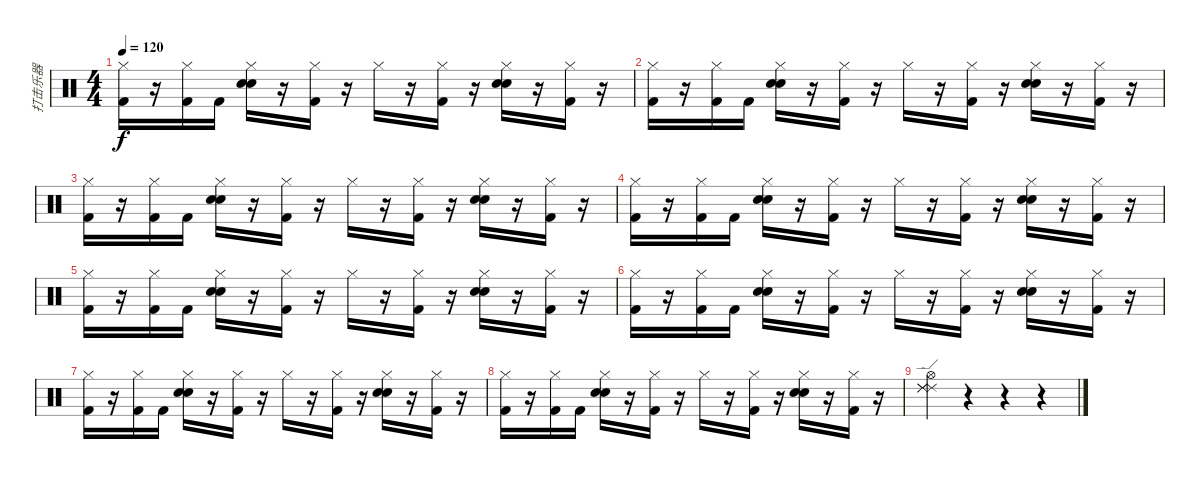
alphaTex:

\track ("打击乐器" "打击乐器") {instrument percussion}
\staff {score}
\articulation defaults
\ts (4 4)
\tempo 120
\clef neutral
\ks c
("Hi-Hat (closed)" "Kick (hit) 2").16{dy f} r.16 ("Hi-Hat (closed)" "Kick (hit) 2").16 "Kick (hit) 2".16 ("Hi-Hat (closed)" "Electric Snare (hit)" "Snare (hit) 2").16 r.16 ("Hi-Hat (closed)" "Kick (hit) 2").16 r.16 "Hi-Hat (closed)".16 r.16 ("Hi-Hat (closed)" "Kick (hit) 2").16 r.16 ("Hi-Hat (closed)" "Electric Snare (hit)" "Snare (hit) 2").16 r.16 ("Hi-Hat (closed)" "Kick (hit) 2").16 r.16 |
("Hi-Hat (closed)" "Kick (hit) 2").16 r.16 ("Hi-Hat (closed)" "Kick (hit) 2").16 "Kick (hit) 2".16 ("Hi-Hat (closed)" "Electric Snare (hit)" "Snare (hit) 2").16 r.16 ("Hi-Hat (closed)" "Kick (hit) 2").16 r.16 "Hi-Hat (closed)".16 r.16 ("Hi-Hat (closed)" "Kick (hit) 2").16 r.16 ("Hi-Hat (closed)" "Electric Snare (hit)" "Snare (hit) 2").16 r.16 ("Hi-Hat (closed)" "Kick (hit) 2").16 r.16 |
("Hi-Hat (closed)" "Kick (hit) 2").16 r.16 ("Hi-Hat (closed)" "Kick (hit) 2").16 "Kick (hit) 2".16 ("Hi-Hat (closed)" "Electric Snare (hit)" "Snare (hit) 2").16 r.16 ("Hi-Hat (closed)" "Kick (hit) 2").16 r.16 "Hi-Hat (closed)".16 r.16 ("Hi-Hat (closed)" "Kick (hit) 2").16 r.16 ("Hi-Hat (closed)" "Electric Snare (hit)" "Snare (hit) 2").16 r.16 ("Hi-Hat (closed)" "Kick (hit) 2").16 r.16 |
("Hi-Hat (closed)" "Kick (hit) 2").16 r.16 ("Hi-Hat (closed)" "Kick (hit) 2").16 "Kick (hit) 2".16 ("Hi-Hat (closed)" "Electric Snare (hit)" "Snare (hit) 2").16 r.16 ("Hi-Hat (closed)" "Kick (hit) 2").16 r.16 "Hi-Hat (closed)".16 r.16 ("Hi-Hat (closed)" "Kick (hit) 2").16 r.16 ("Hi-Hat (closed)" "Electric Snare (hit)" "Snare (hit) 2").16 r.16 ("Hi-Hat (closed)" "Kick (hit) 2").16 r.16 |
("Hi-Hat (closed)" "Kick (hit) 2").16 r.16 ("Hi-Hat (closed)" "Kick (hit) 2").16 "Kick (hit) 2".16 ("Hi-Hat (closed)" "Electric Snare (hit)" "Snare (hit) 2").16 r.16 ("Hi-Hat (closed)" "Kick (hit) 2").16 r.16 "Hi-Hat (closed)".16 r.16 ("Hi-Hat (closed)" "Kick (hit) 2").16 r.16 ("Hi-Hat (closed)" "Electric Snare (hit)" "Snare (hit) 2").16 r.16 ("Hi-Hat (closed)" "Kick (hit) 2").16 r.16 |
("Hi-Hat (closed)" "Kick (hit) 2").16 r.16 ("Hi-Hat (closed)" "Kick (hit) 2").16 "Kick (hit) 2".16 ("Hi-Hat (closed)" "Electric Snare (hit)" "Snare (hit) 2").16 r.16 ("Hi-Hat (closed)" "Kick (hit) 2").16 r.16 "Hi-Hat (closed)".16 r.16 ("Hi-Hat (closed)" "Kick (hit) 2").16 r.16 ("Hi-Hat (closed)" "Electric Snare (hit)" "Snare (hit) 2").16 r.16 ("Hi-Hat (closed)" "Kick (hit) 2").16 r.16 |
("Hi-Hat (closed)" "Kick (hit) 2").16 r.16 ("Hi-Hat (closed)" "Kick (hit) 2").16 "Kick (hit) 2".16 ("Hi-Hat (closed)" "Electric Snare (hit)" "Snare (hit) 2").16 r.16 ("Hi-Hat (closed)" "Kick (hit) 2").16 r.16 "Hi-Hat (closed)".16 r.16 ("Hi-Hat (closed)" "Kick (hit) 2").16 r.16 ("Hi-Hat (closed)" "Electric Snare (hit)" "Snare (hit) 2").16 r.16 ("Hi-Hat (closed)" "Kick (hit) 2").16 r.16 |
("Hi-Hat (closed)" "Kick (hit) 2").16 r.16 ("Hi-Hat (closed)" "Kick (hit) 2").16 "Kick (hit) 2".16 ("Hi-Hat (closed)" "Electric Snare (hit)" "Snare (hit) 2").16 r.16 ("Hi-Hat (closed)" "Kick (hit) 2").16 r.16 "Hi-Hat (closed)".16 r.16 ("Hi-Hat (closed)" "Kick (hit) 2").16 r.16 ("Hi-Hat (closed)" "Electric Snare (hit)" "Snare (hit) 2").16 r.16 ("Hi-Hat (closed)" "Kick (hit) 2").16 r.16 |
("Hi-Hat (open)" "Ride (edge) 2" "Ride (edge) 2" "Ride (edge) 2").4 r.4 r.4 r.4
